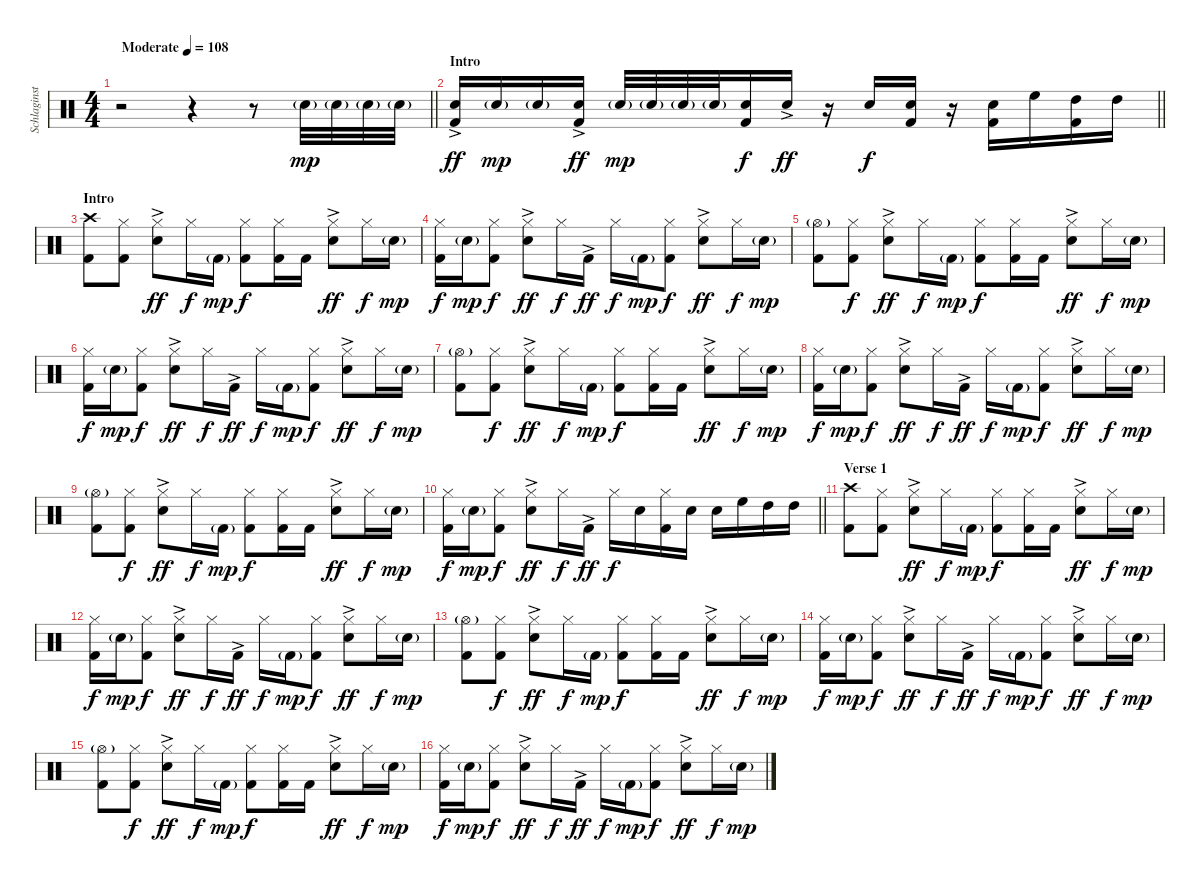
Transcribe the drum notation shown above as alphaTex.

\track ("Schlaginstrumente - Auswahl" "Schlaginst") {instrument percussion}
\staff {score}
\articulation defaults
\ts (4 4)
\tempo (108 "Moderate")
\clef neutral
\barLineRight lightlight
\ks c
r.2{dy mp} r.4 r.8 "Snare (hit) 2"{g}.32 "Snare (hit) 2"{g}.32 "Snare (hit) 2"{g}.32 "Snare (hit) 2"{g}.32 |
\section ("" "Intro")
\barLineRight lightlight
("Snare (hit) 2"{ac} "Kick (hit) 2").16{dy ff} "Snare (hit) 2"{g}.16{dy mp} "Snare (hit) 2"{g}.16 ("Snare (hit) 2"{ac} "Kick (hit) 2").16{dy ff} "Snare (hit) 2"{g}.32{dy mp} "Snare (hit) 2"{g}.32 "Snare (hit) 2"{g}.32 "Snare (hit) 2"{g}.32 ("Snare (hit) 2" "Kick (hit) 2").16{dy f} "Snare (hit) 2"{ac}.16{dy ff} r.16 "Snare (hit) 2".16{dy f} ("Snare (hit) 2" "Kick (hit) 2").16 r.16 ("Snare (hit) 2" "Kick (hit) 2").16 "High Floor Tom (hit)".16 ("High Tom (hit)" "Kick (hit) 2").16 "High Tom (hit)".16 |
\section ("" "Intro")
("Crash high (hit)" "Kick (hit) 2").8 ("Hi-Hat (closed)" "Kick (hit) 2").8 ("Hi-Hat (closed)" "Snare (hit) 2"{ac}).8{dy ff} "Hi-Hat (closed)".16{dy f} "Kick (hit) 2"{g}.16{dy mp} ("Hi-Hat (closed)" "Kick (hit) 2").8{dy f} ("Hi-Hat (closed)" "Kick (hit) 2").16 "Kick (hit) 2".16 ("Hi-Hat (closed)" "Snare (hit) 2"{ac}).8{dy ff} "Hi-Hat (closed)".16{dy f} "Snare (hit) 2"{g}.16{dy mp} |
("Hi-Hat (closed)" "Kick (hit) 2").16{dy f} "Snare (hit) 2"{g}.16{dy mp} ("Hi-Hat (closed)" "Kick (hit) 2").8{dy f} ("Hi-Hat (closed)" "Snare (hit) 2"{ac}).8{dy ff} "Hi-Hat (closed)".16{dy f} "Kick (hit) 2"{ac}.16{dy ff} "Hi-Hat (closed)".16{dy f} "Kick (hit) 2"{g}.16{dy mp} ("Hi-Hat (closed)" "Kick (hit) 2").8{dy f} ("Hi-Hat (closed)" "Snare (hit) 2"{ac}).8{dy ff} "Hi-Hat (closed)".16{dy f} "Snare (hit) 2"{g}.16{dy mp} |
("Hi-Hat (open)"{g} "Kick (hit) 2").8 ("Hi-Hat (closed)" "Kick (hit) 2").8{dy f} ("Hi-Hat (closed)" "Snare (hit) 2"{ac}).8{dy ff} "Hi-Hat (closed)".16{dy f} "Kick (hit) 2"{g}.16{dy mp} ("Hi-Hat (closed)" "Kick (hit) 2").8{dy f} ("Hi-Hat (closed)" "Kick (hit) 2").16 "Kick (hit) 2".16 ("Hi-Hat (closed)" "Snare (hit) 2"{ac}).8{dy ff} "Hi-Hat (closed)".16{dy f} "Snare (hit) 2"{g}.16{dy mp} |
("Hi-Hat (closed)" "Kick (hit) 2").16{dy f} "Snare (hit) 2"{g}.16{dy mp} ("Hi-Hat (closed)" "Kick (hit) 2").8{dy f} ("Hi-Hat (closed)" "Snare (hit) 2"{ac}).8{dy ff} "Hi-Hat (closed)".16{dy f} "Kick (hit) 2"{ac}.16{dy ff} "Hi-Hat (closed)".16{dy f} "Kick (hit) 2"{g}.16{dy mp} ("Hi-Hat (closed)" "Kick (hit) 2").8{dy f} ("Hi-Hat (closed)" "Snare (hit) 2"{ac}).8{dy ff} "Hi-Hat (closed)".16{dy f} "Snare (hit) 2"{g}.16{dy mp} |
("Hi-Hat (open)"{g} "Kick (hit) 2").8 ("Hi-Hat (closed)" "Kick (hit) 2").8{dy f} ("Hi-Hat (closed)" "Snare (hit) 2"{ac}).8{dy ff} "Hi-Hat (closed)".16{dy f} "Kick (hit) 2"{g}.16{dy mp} ("Hi-Hat (closed)" "Kick (hit) 2").8{dy f} ("Hi-Hat (closed)" "Kick (hit) 2").16 "Kick (hit) 2".16 ("Hi-Hat (closed)" "Snare (hit) 2"{ac}).8{dy ff} "Hi-Hat (closed)".16{dy f} "Snare (hit) 2"{g}.16{dy mp} |
("Hi-Hat (closed)" "Kick (hit) 2").16{dy f} "Snare (hit) 2"{g}.16{dy mp} ("Hi-Hat (closed)" "Kick (hit) 2").8{dy f} ("Hi-Hat (closed)" "Snare (hit) 2"{ac}).8{dy ff} "Hi-Hat (closed)".16{dy f} "Kick (hit) 2"{ac}.16{dy ff} "Hi-Hat (closed)".16{dy f} "Kick (hit) 2"{g}.16{dy mp} ("Hi-Hat (closed)" "Kick (hit) 2").8{dy f} ("Hi-Hat (closed)" "Snare (hit) 2"{ac}).8{dy ff} "Hi-Hat (closed)".16{dy f} "Snare (hit) 2"{g}.16{dy mp} |
("Hi-Hat (open)"{g} "Kick (hit) 2").8 ("Hi-Hat (closed)" "Kick (hit) 2").8{dy f} ("Hi-Hat (closed)" "Snare (hit) 2"{ac}).8{dy ff} "Hi-Hat (closed)".16{dy f} "Kick (hit) 2"{g}.16{dy mp} ("Hi-Hat (closed)" "Kick (hit) 2").8{dy f} ("Hi-Hat (closed)" "Kick (hit) 2").16 "Kick (hit) 2".16 ("Hi-Hat (closed)" "Snare (hit) 2"{ac}).8{dy ff} "Hi-Hat (closed)".16{dy f} "Snare (hit) 2"{g}.16{dy mp} |
\barLineRight lightlight
("Hi-Hat (closed)" "Kick (hit) 2").16{dy f} "Snare (hit) 2"{g}.16{dy mp} ("Hi-Hat (closed)" "Kick (hit) 2").8{dy f} ("Hi-Hat (closed)" "Snare (hit) 2"{ac}).8{dy ff} "Hi-Hat (closed)".16{dy f} "Kick (hit) 2"{ac}.16{dy ff} "Hi-Hat (closed)".16{dy f} "Snare (hit) 2".16 ("Hi-Hat (closed)" "Kick (hit) 2").16 "Snare (hit) 2".16 "Snare (hit) 2".16 "High Floor Tom (hit)".16 "High Tom (hit)".16 "High Tom (hit)".16 |
\section ("" "Verse 1")
("Crash high (hit)" "Kick (hit) 2").8 ("Hi-Hat (closed)" "Kick (hit) 2").8 ("Hi-Hat (closed)" "Snare (hit) 2"{ac}).8{dy ff} "Hi-Hat (closed)".16{dy f} "Kick (hit) 2"{g}.16{dy mp} ("Hi-Hat (closed)" "Kick (hit) 2").8{dy f} ("Hi-Hat (closed)" "Kick (hit) 2").16 "Kick (hit) 2".16 ("Hi-Hat (closed)" "Snare (hit) 2"{ac}).8{dy ff} "Hi-Hat (closed)".16{dy f} "Snare (hit) 2"{g}.16{dy mp} |
("Hi-Hat (closed)" "Kick (hit) 2").16{dy f} "Snare (hit) 2"{g}.16{dy mp} ("Hi-Hat (closed)" "Kick (hit) 2").8{dy f} ("Hi-Hat (closed)" "Snare (hit) 2"{ac}).8{dy ff} "Hi-Hat (closed)".16{dy f} "Kick (hit) 2"{ac}.16{dy ff} "Hi-Hat (closed)".16{dy f} "Kick (hit) 2"{g}.16{dy mp} ("Hi-Hat (closed)" "Kick (hit) 2").8{dy f} ("Hi-Hat (closed)" "Snare (hit) 2"{ac}).8{dy ff} "Hi-Hat (closed)".16{dy f} "Snare (hit) 2"{g}.16{dy mp} |
("Hi-Hat (open)"{g} "Kick (hit) 2").8 ("Hi-Hat (closed)" "Kick (hit) 2").8{dy f} ("Hi-Hat (closed)" "Snare (hit) 2"{ac}).8{dy ff} "Hi-Hat (closed)".16{dy f} "Kick (hit) 2"{g}.16{dy mp} ("Hi-Hat (closed)" "Kick (hit) 2").8{dy f} ("Hi-Hat (closed)" "Kick (hit) 2").16 "Kick (hit) 2".16 ("Hi-Hat (closed)" "Snare (hit) 2"{ac}).8{dy ff} "Hi-Hat (closed)".16{dy f} "Snare (hit) 2"{g}.16{dy mp} |
("Hi-Hat (closed)" "Kick (hit) 2").16{dy f} "Snare (hit) 2"{g}.16{dy mp} ("Hi-Hat (closed)" "Kick (hit) 2").8{dy f} ("Hi-Hat (closed)" "Snare (hit) 2"{ac}).8{dy ff} "Hi-Hat (closed)".16{dy f} "Kick (hit) 2"{ac}.16{dy ff} "Hi-Hat (closed)".16{dy f} "Kick (hit) 2"{g}.16{dy mp} ("Hi-Hat (closed)" "Kick (hit) 2").8{dy f} ("Hi-Hat (closed)" "Snare (hit) 2"{ac}).8{dy ff} "Hi-Hat (closed)".16{dy f} "Snare (hit) 2"{g}.16{dy mp} |
("Hi-Hat (open)"{g} "Kick (hit) 2").8 ("Hi-Hat (closed)" "Kick (hit) 2").8{dy f} ("Hi-Hat (closed)" "Snare (hit) 2"{ac}).8{dy ff} "Hi-Hat (closed)".16{dy f} "Kick (hit) 2"{g}.16{dy mp} ("Hi-Hat (closed)" "Kick (hit) 2").8{dy f} ("Hi-Hat (closed)" "Kick (hit) 2").16 "Kick (hit) 2".16 ("Hi-Hat (closed)" "Snare (hit) 2"{ac}).8{dy ff} "Hi-Hat (closed)".16{dy f} "Snare (hit) 2"{g}.16{dy mp} |
("Hi-Hat (closed)" "Kick (hit) 2").16{dy f} "Snare (hit) 2"{g}.16{dy mp} ("Hi-Hat (closed)" "Kick (hit) 2").8{dy f} ("Hi-Hat (closed)" "Snare (hit) 2"{ac}).8{dy ff} "Hi-Hat (closed)".16{dy f} "Kick (hit) 2"{ac}.16{dy ff} "Hi-Hat (closed)".16{dy f} "Kick (hit) 2"{g}.16{dy mp} ("Hi-Hat (closed)" "Kick (hit) 2").8{dy f} ("Hi-Hat (closed)" "Snare (hit) 2"{ac}).8{dy ff} "Hi-Hat (closed)".16{dy f} "Snare (hit) 2"{g}.16{dy mp}
